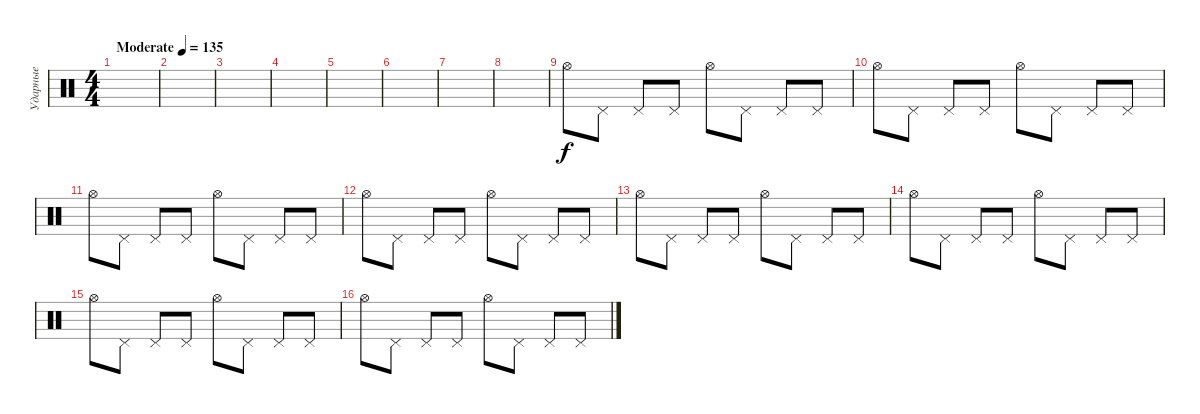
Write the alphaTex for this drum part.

\track ("Ударные" "Ударные") {instrument percussion}
\staff {score}
\articulation defaults
\ts (4 4)
\tempo (135 "Moderate")
\clef neutral
\ks c
|
|
|
|
|
|
|
|
"Hi-Hat (open)".8 "Pedal Hi-Hat (hit)".8 "Pedal Hi-Hat (hit)".8 "Pedal Hi-Hat (hit)".8 "Hi-Hat (open)".8 "Pedal Hi-Hat (hit)".8 "Pedal Hi-Hat (hit)".8 "Pedal Hi-Hat (hit)".8 |
"Hi-Hat (open)".8 "Pedal Hi-Hat (hit)".8 "Pedal Hi-Hat (hit)".8 "Pedal Hi-Hat (hit)".8 "Hi-Hat (open)".8 "Pedal Hi-Hat (hit)".8 "Pedal Hi-Hat (hit)".8 "Pedal Hi-Hat (hit)".8 |
"Hi-Hat (open)".8 "Pedal Hi-Hat (hit)".8 "Pedal Hi-Hat (hit)".8 "Pedal Hi-Hat (hit)".8 "Hi-Hat (open)".8 "Pedal Hi-Hat (hit)".8 "Pedal Hi-Hat (hit)".8 "Pedal Hi-Hat (hit)".8 |
"Hi-Hat (open)".8 "Pedal Hi-Hat (hit)".8 "Pedal Hi-Hat (hit)".8 "Pedal Hi-Hat (hit)".8 "Hi-Hat (open)".8 "Pedal Hi-Hat (hit)".8 "Pedal Hi-Hat (hit)".8 "Pedal Hi-Hat (hit)".8 |
"Hi-Hat (open)".8 "Pedal Hi-Hat (hit)".8 "Pedal Hi-Hat (hit)".8 "Pedal Hi-Hat (hit)".8 "Hi-Hat (open)".8 "Pedal Hi-Hat (hit)".8 "Pedal Hi-Hat (hit)".8 "Pedal Hi-Hat (hit)".8 |
"Hi-Hat (open)".8 "Pedal Hi-Hat (hit)".8 "Pedal Hi-Hat (hit)".8 "Pedal Hi-Hat (hit)".8 "Hi-Hat (open)".8 "Pedal Hi-Hat (hit)".8 "Pedal Hi-Hat (hit)".8 "Pedal Hi-Hat (hit)".8 |
"Hi-Hat (open)".8 "Pedal Hi-Hat (hit)".8 "Pedal Hi-Hat (hit)".8 "Pedal Hi-Hat (hit)".8 "Hi-Hat (open)".8 "Pedal Hi-Hat (hit)".8 "Pedal Hi-Hat (hit)".8 "Pedal Hi-Hat (hit)".8 |
"Hi-Hat (open)".8 "Pedal Hi-Hat (hit)".8 "Pedal Hi-Hat (hit)".8 "Pedal Hi-Hat (hit)".8 "Hi-Hat (open)".8 "Pedal Hi-Hat (hit)".8 "Pedal Hi-Hat (hit)".8 "Pedal Hi-Hat (hit)".8
